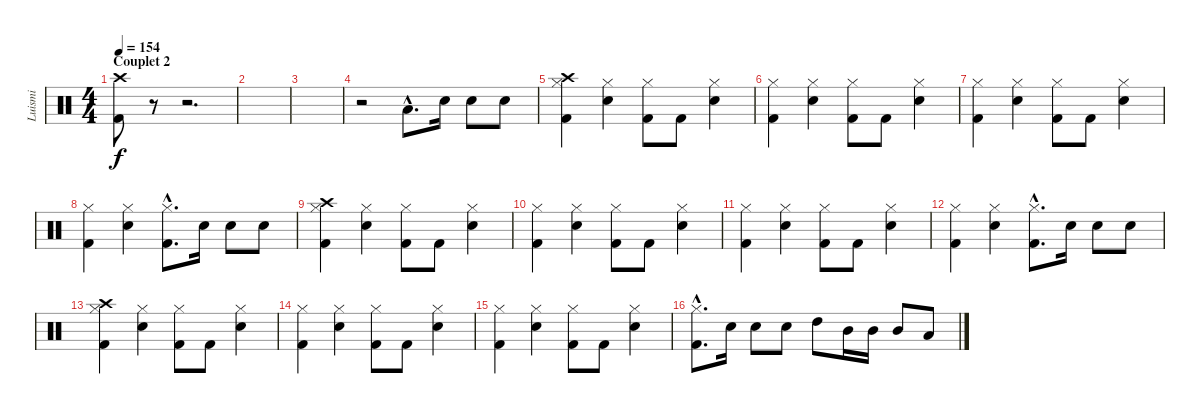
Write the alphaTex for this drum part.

\track ("Luismi" "Luismi") {instrument percussion}
\staff {score}
\articulation defaults
\ts (4 4)
\section ("" "Couplet 2")
\tempo 154
\clef neutral
\ks c
("Kick (hit) 2" "Crash high (hit)").8{dy f} r.8 r.2{d} |
|
|
r.2 "Low Tom (hit)"{hac}.8{d} "Snare (hit) 2".16 "Snare (hit) 2".8 "Snare (hit) 2".8 |
("Kick (hit) 2" "Hi-Hat (closed)" "Crash high (hit)").4 ("Snare (hit) 2" "Hi-Hat (closed)").4 ("Kick (hit) 2" "Hi-Hat (closed)").8 "Kick (hit) 2".8 ("Snare (hit) 2" "Hi-Hat (closed)").4 |
("Kick (hit) 2" "Hi-Hat (closed)").4 ("Snare (hit) 2" "Hi-Hat (closed)").4 ("Kick (hit) 2" "Hi-Hat (closed)").8 "Kick (hit) 2".8 ("Snare (hit) 2" "Hi-Hat (closed)").4 |
("Kick (hit) 2" "Hi-Hat (closed)").4 ("Snare (hit) 2" "Hi-Hat (closed)").4 ("Kick (hit) 2" "Hi-Hat (closed)").8 "Kick (hit) 2".8 ("Snare (hit) 2" "Hi-Hat (closed)").4 |
("Kick (hit) 2" "Hi-Hat (closed)").4 ("Snare (hit) 2" "Hi-Hat (closed)").4 ("Kick (hit) 2"{hac} "Hi-Hat (closed)"{hac}).8{d} "Snare (hit) 2".16 "Snare (hit) 2".8 "Snare (hit) 2".8 |
("Kick (hit) 2" "Hi-Hat (closed)" "Crash high (hit)").4 ("Snare (hit) 2" "Hi-Hat (closed)").4 ("Kick (hit) 2" "Hi-Hat (closed)").8 "Kick (hit) 2".8 ("Snare (hit) 2" "Hi-Hat (closed)").4 |
("Kick (hit) 2" "Hi-Hat (closed)").4 ("Snare (hit) 2" "Hi-Hat (closed)").4 ("Kick (hit) 2" "Hi-Hat (closed)").8 "Kick (hit) 2".8 ("Snare (hit) 2" "Hi-Hat (closed)").4 |
("Kick (hit) 2" "Hi-Hat (closed)").4 ("Snare (hit) 2" "Hi-Hat (closed)").4 ("Kick (hit) 2" "Hi-Hat (closed)").8 "Kick (hit) 2".8 ("Snare (hit) 2" "Hi-Hat (closed)").4 |
("Kick (hit) 2" "Hi-Hat (closed)").4 ("Snare (hit) 2" "Hi-Hat (closed)").4 ("Kick (hit) 2"{hac} "Hi-Hat (closed)"{hac}).8{d} "Snare (hit) 2".16 "Snare (hit) 2".8 "Snare (hit) 2".8 |
("Kick (hit) 2" "Hi-Hat (closed)" "Crash high (hit)").4 ("Snare (hit) 2" "Hi-Hat (closed)").4 ("Kick (hit) 2" "Hi-Hat (closed)").8 "Kick (hit) 2".8 ("Snare (hit) 2" "Hi-Hat (closed)").4 |
("Kick (hit) 2" "Hi-Hat (closed)").4 ("Snare (hit) 2" "Hi-Hat (closed)").4 ("Kick (hit) 2" "Hi-Hat (closed)").8 "Kick (hit) 2".8 ("Snare (hit) 2" "Hi-Hat (closed)").4 |
("Kick (hit) 2" "Hi-Hat (closed)").4 ("Snare (hit) 2" "Hi-Hat (closed)").4 ("Kick (hit) 2" "Hi-Hat (closed)").8 "Kick (hit) 2".8 ("Snare (hit) 2" "Hi-Hat (closed)").4 |
("Kick (hit) 2"{hac} "Hi-Hat (closed)"{hac}).8{d} "Snare (hit) 2".16 "Snare (hit) 2".8 "Snare (hit) 2".8 "High Tom (hit)".8 "Mid Tom (hit)".16 "Mid Tom (hit)".16 "Mid Tom (hit)".8 "Low Tom (hit)".8
